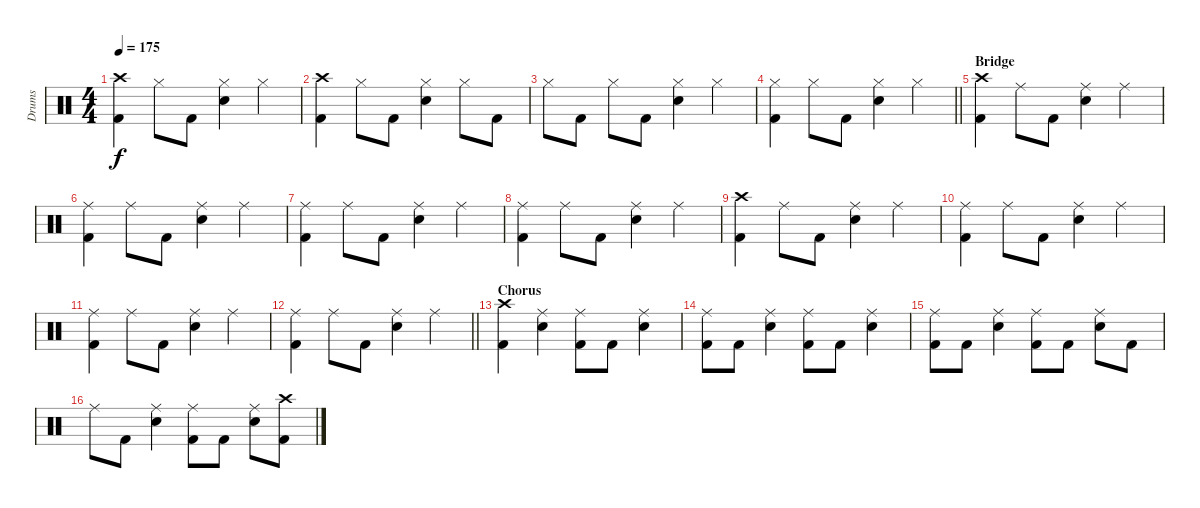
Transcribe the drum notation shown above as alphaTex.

\track ("Drums" "Drums") {instrument percussion}
\staff {score}
\articulation defaults
\ts (4 4)
\tempo 175
\clef neutral
\ks c
("Crash high (hit)" "Kick (hit) 2").4{dy f} "Hi-Hat (closed)".8 "Kick (hit) 2".8 ("Hi-Hat (closed)" "Snare (hit) 2").4 "Hi-Hat (closed)".4 |
("Crash high (hit)" "Kick (hit) 2").4 "Hi-Hat (closed)".8 "Kick (hit) 2".8 ("Hi-Hat (closed)" "Snare (hit) 2").4 "Hi-Hat (closed)".8 "Kick (hit) 2".8 |
"Hi-Hat (closed)".8 "Kick (hit) 2".8 "Hi-Hat (closed)".8 "Kick (hit) 2".8 ("Hi-Hat (closed)" "Snare (hit) 2").4 "Hi-Hat (closed)".4 |
\barLineRight lightlight
("Hi-Hat (closed)" "Kick (hit) 2").4 "Hi-Hat (closed)".8 "Kick (hit) 2".8 ("Hi-Hat (closed)" "Snare (hit) 2").4 "Hi-Hat (closed)".4 |
\section ("" "Bridge")
("Crash high (hit)" "Kick (hit) 2").4 "Ride (middle)".8 "Kick (hit) 2".8 ("Ride (middle)" "Snare (hit) 2").4 "Ride (middle)".4 |
("Ride (middle)" "Kick (hit) 2").4 "Ride (middle)".8 "Kick (hit) 2".8 ("Ride (middle)" "Snare (hit) 2").4 "Ride (middle)".4 |
("Ride (middle)" "Kick (hit) 2").4 "Ride (middle)".8 "Kick (hit) 2".8 ("Ride (middle)" "Snare (hit) 2").4 "Ride (middle)".4 |
("Ride (middle)" "Kick (hit) 2").4 "Ride (middle)".8 "Kick (hit) 2".8 ("Ride (middle)" "Snare (hit) 2").4 "Ride (middle)".4 |
("Crash high (hit)" "Kick (hit) 2").4 "Ride (middle)".8 "Kick (hit) 2".8 ("Ride (middle)" "Snare (hit) 2").4 "Ride (middle)".4 |
("Ride (middle)" "Kick (hit) 2").4 "Ride (middle)".8 "Kick (hit) 2".8 ("Ride (middle)" "Snare (hit) 2").4 "Ride (middle)".4 |
("Ride (middle)" "Kick (hit) 2").4 "Ride (middle)".8 "Kick (hit) 2".8 ("Ride (middle)" "Snare (hit) 2").4 "Ride (middle)".4 |
\barLineRight lightlight
("Ride (middle)" "Kick (hit) 2").4 "Ride (middle)".8 "Kick (hit) 2".8 ("Ride (middle)" "Snare (hit) 2").4 "Ride (middle)".4 |
\section ("" "Chorus")
("Crash high (hit)" "Kick (hit) 2").4 ("Ride (middle)" "Snare (hit) 2").4 ("Ride (middle)" "Kick (hit) 2").8 "Kick (hit) 2".8 ("Ride (middle)" "Snare (hit) 2").4 |
("Ride (middle)" "Kick (hit) 2").8 "Kick (hit) 2".8 ("Ride (middle)" "Snare (hit) 2").4 ("Ride (middle)" "Kick (hit) 2").8 "Kick (hit) 2".8 ("Ride (middle)" "Snare (hit) 2").4 |
("Ride (middle)" "Kick (hit) 2").8 "Kick (hit) 2".8 ("Ride (middle)" "Snare (hit) 2").4 ("Ride (middle)" "Kick (hit) 2").8 "Kick (hit) 2".8 ("Ride (middle)" "Snare (hit) 2").8 "Kick (hit) 2".8 |
"Ride (middle)".8 "Kick (hit) 2".8 ("Ride (middle)" "Snare (hit) 2").4 ("Ride (middle)" "Kick (hit) 2").8 "Kick (hit) 2".8 ("Ride (middle)" "Snare (hit) 2").8 ("Crash high (hit)" "Kick (hit) 2").8
